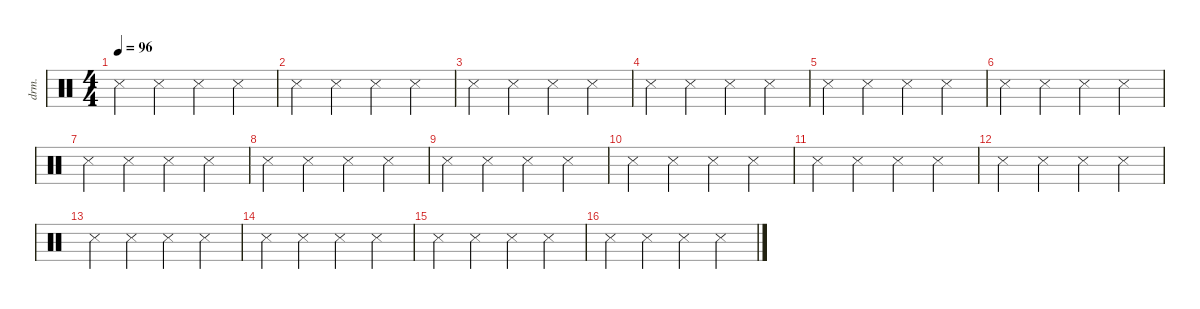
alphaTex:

\defaultSystemsLayout 4
\hideDynamics
\bracketExtendMode nobrackets
\otherSystemsTrackNameOrientation horizontal
\track ("Drumkit" "drm.") {instrument percussion}
\staff {score}
\articulation defaults
\ts (4 4)
\beaming (8 2 2 2 2)
\tempo 96
\clef neutral
\ks c "Metronome (hit)".4{dy mf} "Metronome (hit)".4 "Metronome (hit)".4 "Metronome (hit)".4
|
"Metronome (hit)".4 "Metronome (hit)".4 "Metronome (hit)".4 "Metronome (hit)".4 |
"Metronome (hit)".4 "Metronome (hit)".4 "Metronome (hit)".4 "Metronome (hit)".4 |
"Metronome (hit)".4 "Metronome (hit)".4 "Metronome (hit)".4 "Metronome (hit)".4 |
"Metronome (hit)".4 "Metronome (hit)".4 "Metronome (hit)".4 "Metronome (hit)".4 |
"Metronome (hit)".4 "Metronome (hit)".4 "Metronome (hit)".4 "Metronome (hit)".4 |
"Metronome (hit)".4 "Metronome (hit)".4 "Metronome (hit)".4 "Metronome (hit)".4 |
"Metronome (hit)".4 "Metronome (hit)".4 "Metronome (hit)".4 "Metronome (hit)".4 |
"Metronome (hit)".4 "Metronome (hit)".4 "Metronome (hit)".4 "Metronome (hit)".4 |
"Metronome (hit)".4 "Metronome (hit)".4 "Metronome (hit)".4 "Metronome (hit)".4 |
"Metronome (hit)".4 "Metronome (hit)".4 "Metronome (hit)".4 "Metronome (hit)".4 |
"Metronome (hit)".4 "Metronome (hit)".4 "Metronome (hit)".4 "Metronome (hit)".4 |
"Metronome (hit)".4 "Metronome (hit)".4 "Metronome (hit)".4 "Metronome (hit)".4 |
"Metronome (hit)".4 "Metronome (hit)".4 "Metronome (hit)".4 "Metronome (hit)".4 |
"Metronome (hit)".4 "Metronome (hit)".4 "Metronome (hit)".4 "Metronome (hit)".4 |
"Metronome (hit)".4 "Metronome (hit)".4 "Metronome (hit)".4 "Metronome (hit)".4
